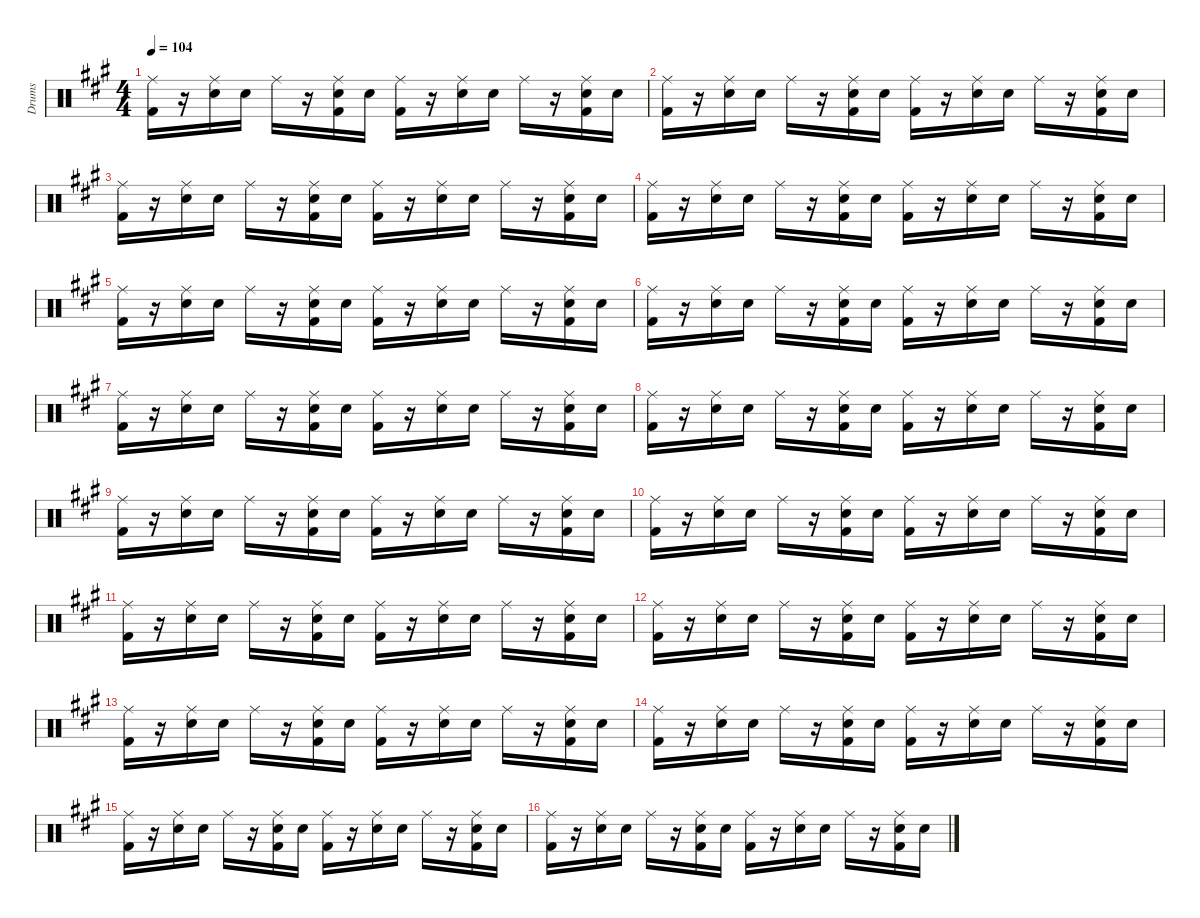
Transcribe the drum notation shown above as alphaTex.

\hideDynamics
\bracketExtendMode nobrackets
\otherSystemsTrackNameOrientation horizontal
\track ("Drumkit" "Drums") {instrument percussion}
\staff {score}
\articulation defaults
\ts (4 4)
\tempo 104
\clef neutral
\ks a
("Ride (middle)"{acc forcenatural} "Kick (hit) 2"{acc forcenatural}).16{dy f beam Down} r.16{beam Down} ("Ride (middle)"{acc forcenatural} "Snare (hit) 2"{acc forcenatural}).16{beam Down} "Snare (hit) 2"{acc forcenatural}.16{beam Down} "Ride (middle)"{acc forcenatural}.16{beam Down} r.16{beam Down} ("Ride (middle)"{acc forcenatural} "Snare (hit) 2"{acc forcenatural} "Kick (hit) 2"{acc forcenatural}).16{beam Down} "Snare (hit) 2"{acc forcenatural}.16{beam Down} ("Ride (middle)"{acc forcenatural} "Kick (hit) 2"{acc forcenatural}).16{beam Down} r.16{beam Down} ("Ride (middle)"{acc forcenatural} "Snare (hit) 2"{acc forcenatural}).16{beam Down} "Snare (hit) 2"{acc forcenatural}.16{beam Down} "Ride (middle)"{acc forcenatural}.16{beam Down} r.16{beam Down} ("Ride (middle)"{acc forcenatural} "Snare (hit) 2"{acc forcenatural} "Kick (hit) 2"{acc forcenatural}).16{beam Down} "Snare (hit) 2"{acc forcenatural}.16{beam Down} |
("Ride (middle)"{acc forcenatural} "Kick (hit) 2"{acc forcenatural}).16{beam Down} r.16{beam Down} ("Ride (middle)"{acc forcenatural} "Snare (hit) 2"{acc forcenatural}).16{beam Down} "Snare (hit) 2"{acc forcenatural}.16{beam Down} "Ride (middle)"{acc forcenatural}.16{beam Down} r.16{beam Down} ("Ride (middle)"{acc forcenatural} "Snare (hit) 2"{acc forcenatural} "Kick (hit) 2"{acc forcenatural}).16{beam Down} "Snare (hit) 2"{acc forcenatural}.16{beam Down} ("Ride (middle)"{acc forcenatural} "Kick (hit) 2"{acc forcenatural}).16{beam Down} r.16{beam Down} ("Ride (middle)"{acc forcenatural} "Snare (hit) 2"{acc forcenatural}).16{beam Down} "Snare (hit) 2"{acc forcenatural}.16{beam Down} "Ride (middle)"{acc forcenatural}.16{beam Down} r.16{beam Down} ("Ride (middle)"{acc forcenatural} "Snare (hit) 2"{acc forcenatural} "Kick (hit) 2"{acc forcenatural}).16{beam Down} "Snare (hit) 2"{acc forcenatural}.16{beam Down} |
("Ride (middle)"{acc forcenatural} "Kick (hit) 2"{acc forcenatural}).16{beam Down} r.16{beam Down} ("Ride (middle)"{acc forcenatural} "Snare (hit) 2"{acc forcenatural}).16{beam Down} "Snare (hit) 2"{acc forcenatural}.16{beam Down} "Ride (middle)"{acc forcenatural}.16{beam Down} r.16{beam Down} ("Ride (middle)"{acc forcenatural} "Snare (hit) 2"{acc forcenatural} "Kick (hit) 2"{acc forcenatural}).16{beam Down} "Snare (hit) 2"{acc forcenatural}.16{beam Down} ("Ride (middle)"{acc forcenatural} "Kick (hit) 2"{acc forcenatural}).16{beam Down} r.16{beam Down} ("Ride (middle)"{acc forcenatural} "Snare (hit) 2"{acc forcenatural}).16{beam Down} "Snare (hit) 2"{acc forcenatural}.16{beam Down} "Ride (middle)"{acc forcenatural}.16{beam Down} r.16{beam Down} ("Ride (middle)"{acc forcenatural} "Snare (hit) 2"{acc forcenatural} "Kick (hit) 2"{acc forcenatural}).16{beam Down} "Snare (hit) 2"{acc forcenatural}.16{beam Down} |
("Ride (middle)"{acc forcenatural} "Kick (hit) 2"{acc forcenatural}).16{beam Down} r.16{beam Down} ("Ride (middle)"{acc forcenatural} "Snare (hit) 2"{acc forcenatural}).16{beam Down} "Snare (hit) 2"{acc forcenatural}.16{beam Down} "Ride (middle)"{acc forcenatural}.16{beam Down} r.16{beam Down} ("Ride (middle)"{acc forcenatural} "Snare (hit) 2"{acc forcenatural} "Kick (hit) 2"{acc forcenatural}).16{beam Down} "Snare (hit) 2"{acc forcenatural}.16{beam Down} ("Ride (middle)"{acc forcenatural} "Kick (hit) 2"{acc forcenatural}).16{beam Down} r.16{beam Down} ("Ride (middle)"{acc forcenatural} "Snare (hit) 2"{acc forcenatural}).16{beam Down} "Snare (hit) 2"{acc forcenatural}.16{beam Down} "Ride (middle)"{acc forcenatural}.16{beam Down} r.16{beam Down} ("Ride (middle)"{acc forcenatural} "Snare (hit) 2"{acc forcenatural} "Kick (hit) 2"{acc forcenatural}).16{beam Down} "Snare (hit) 2"{acc forcenatural}.16{beam Down} |
("Ride (middle)"{acc forcenatural} "Kick (hit) 2"{acc forcenatural}).16{beam Down} r.16{beam Down} ("Ride (middle)"{acc forcenatural} "Snare (hit) 2"{acc forcenatural}).16{beam Down} "Snare (hit) 2"{acc forcenatural}.16{beam Down} "Ride (middle)"{acc forcenatural}.16{beam Down} r.16{beam Down} ("Ride (middle)"{acc forcenatural} "Snare (hit) 2"{acc forcenatural} "Kick (hit) 2"{acc forcenatural}).16{beam Down} "Snare (hit) 2"{acc forcenatural}.16{beam Down} ("Ride (middle)"{acc forcenatural} "Kick (hit) 2"{acc forcenatural}).16{beam Down} r.16{beam Down} ("Ride (middle)"{acc forcenatural} "Snare (hit) 2"{acc forcenatural}).16{beam Down} "Snare (hit) 2"{acc forcenatural}.16{beam Down} "Ride (middle)"{acc forcenatural}.16{beam Down} r.16{beam Down} ("Ride (middle)"{acc forcenatural} "Snare (hit) 2"{acc forcenatural} "Kick (hit) 2"{acc forcenatural}).16{beam Down} "Snare (hit) 2"{acc forcenatural}.16{beam Down} |
("Ride (middle)"{acc forcenatural} "Kick (hit) 2"{acc forcenatural}).16{beam Down} r.16{beam Down} ("Ride (middle)"{acc forcenatural} "Snare (hit) 2"{acc forcenatural}).16{beam Down} "Snare (hit) 2"{acc forcenatural}.16{beam Down} "Ride (middle)"{acc forcenatural}.16{beam Down} r.16{beam Down} ("Ride (middle)"{acc forcenatural} "Snare (hit) 2"{acc forcenatural} "Kick (hit) 2"{acc forcenatural}).16{beam Down} "Snare (hit) 2"{acc forcenatural}.16{beam Down} ("Ride (middle)"{acc forcenatural} "Kick (hit) 2"{acc forcenatural}).16{beam Down} r.16{beam Down} ("Ride (middle)"{acc forcenatural} "Snare (hit) 2"{acc forcenatural}).16{beam Down} "Snare (hit) 2"{acc forcenatural}.16{beam Down} "Ride (middle)"{acc forcenatural}.16{beam Down} r.16{beam Down} ("Ride (middle)"{acc forcenatural} "Snare (hit) 2"{acc forcenatural} "Kick (hit) 2"{acc forcenatural}).16{beam Down} "Snare (hit) 2"{acc forcenatural}.16{beam Down} |
("Ride (middle)"{acc forcenatural} "Kick (hit) 2"{acc forcenatural}).16{beam Down} r.16{beam Down} ("Ride (middle)"{acc forcenatural} "Snare (hit) 2"{acc forcenatural}).16{beam Down} "Snare (hit) 2"{acc forcenatural}.16{beam Down} "Ride (middle)"{acc forcenatural}.16{beam Down} r.16{beam Down} ("Ride (middle)"{acc forcenatural} "Snare (hit) 2"{acc forcenatural} "Kick (hit) 2"{acc forcenatural}).16{beam Down} "Snare (hit) 2"{acc forcenatural}.16{beam Down} ("Ride (middle)"{acc forcenatural} "Kick (hit) 2"{acc forcenatural}).16{beam Down} r.16{beam Down} ("Ride (middle)"{acc forcenatural} "Snare (hit) 2"{acc forcenatural}).16{beam Down} "Snare (hit) 2"{acc forcenatural}.16{beam Down} "Ride (middle)"{acc forcenatural}.16{beam Down} r.16{beam Down} ("Ride (middle)"{acc forcenatural} "Snare (hit) 2"{acc forcenatural} "Kick (hit) 2"{acc forcenatural}).16{beam Down} "Snare (hit) 2"{acc forcenatural}.16{beam Down} |
("Ride (middle)"{acc forcenatural} "Kick (hit) 2"{acc forcenatural}).16{beam Down} r.16{beam Down} ("Ride (middle)"{acc forcenatural} "Snare (hit) 2"{acc forcenatural}).16{beam Down} "Snare (hit) 2"{acc forcenatural}.16{beam Down} "Ride (middle)"{acc forcenatural}.16{beam Down} r.16{beam Down} ("Ride (middle)"{acc forcenatural} "Snare (hit) 2"{acc forcenatural} "Kick (hit) 2"{acc forcenatural}).16{beam Down} "Snare (hit) 2"{acc forcenatural}.16{beam Down} ("Ride (middle)"{acc forcenatural} "Kick (hit) 2"{acc forcenatural}).16{beam Down} r.16{beam Down} ("Ride (middle)"{acc forcenatural} "Snare (hit) 2"{acc forcenatural}).16{beam Down} "Snare (hit) 2"{acc forcenatural}.16{beam Down} "Ride (middle)"{acc forcenatural}.16{beam Down} r.16{beam Down} ("Ride (middle)"{acc forcenatural} "Snare (hit) 2"{acc forcenatural} "Kick (hit) 2"{acc forcenatural}).16{beam Down} "Snare (hit) 2"{acc forcenatural}.16{beam Down} |
("Ride (middle)"{acc forcenatural} "Kick (hit) 2"{acc forcenatural}).16{beam Down} r.16{beam Down} ("Ride (middle)"{acc forcenatural} "Snare (hit) 2"{acc forcenatural}).16{beam Down} "Snare (hit) 2"{acc forcenatural}.16{beam Down} "Ride (middle)"{acc forcenatural}.16{beam Down} r.16{beam Down} ("Ride (middle)"{acc forcenatural} "Snare (hit) 2"{acc forcenatural} "Kick (hit) 2"{acc forcenatural}).16{beam Down} "Snare (hit) 2"{acc forcenatural}.16{beam Down} ("Ride (middle)"{acc forcenatural} "Kick (hit) 2"{acc forcenatural}).16{beam Down} r.16{beam Down} ("Ride (middle)"{acc forcenatural} "Snare (hit) 2"{acc forcenatural}).16{beam Down} "Snare (hit) 2"{acc forcenatural}.16{beam Down} "Ride (middle)"{acc forcenatural}.16{beam Down} r.16{beam Down} ("Ride (middle)"{acc forcenatural} "Snare (hit) 2"{acc forcenatural} "Kick (hit) 2"{acc forcenatural}).16{beam Down} "Snare (hit) 2"{acc forcenatural}.16{beam Down} |
("Ride (middle)"{acc forcenatural} "Kick (hit) 2"{acc forcenatural}).16{beam Down} r.16{beam Down} ("Ride (middle)"{acc forcenatural} "Snare (hit) 2"{acc forcenatural}).16{beam Down} "Snare (hit) 2"{acc forcenatural}.16{beam Down} "Ride (middle)"{acc forcenatural}.16{beam Down} r.16{beam Down} ("Ride (middle)"{acc forcenatural} "Snare (hit) 2"{acc forcenatural} "Kick (hit) 2"{acc forcenatural}).16{beam Down} "Snare (hit) 2"{acc forcenatural}.16{beam Down} ("Ride (middle)"{acc forcenatural} "Kick (hit) 2"{acc forcenatural}).16{beam Down} r.16{beam Down} ("Ride (middle)"{acc forcenatural} "Snare (hit) 2"{acc forcenatural}).16{beam Down} "Snare (hit) 2"{acc forcenatural}.16{beam Down} "Ride (middle)"{acc forcenatural}.16{beam Down} r.16{beam Down} ("Ride (middle)"{acc forcenatural} "Snare (hit) 2"{acc forcenatural} "Kick (hit) 2"{acc forcenatural}).16{beam Down} "Snare (hit) 2"{acc forcenatural}.16{beam Down} |
("Ride (middle)"{acc forcenatural} "Kick (hit) 2"{acc forcenatural}).16{beam Down} r.16{beam Down} ("Ride (middle)"{acc forcenatural} "Snare (hit) 2"{acc forcenatural}).16{beam Down} "Snare (hit) 2"{acc forcenatural}.16{beam Down} "Ride (middle)"{acc forcenatural}.16{beam Down} r.16{beam Down} ("Ride (middle)"{acc forcenatural} "Snare (hit) 2"{acc forcenatural} "Kick (hit) 2"{acc forcenatural}).16{beam Down} "Snare (hit) 2"{acc forcenatural}.16{beam Down} ("Ride (middle)"{acc forcenatural} "Kick (hit) 2"{acc forcenatural}).16{beam Down} r.16{beam Down} ("Ride (middle)"{acc forcenatural} "Snare (hit) 2"{acc forcenatural}).16{beam Down} "Snare (hit) 2"{acc forcenatural}.16{beam Down} "Ride (middle)"{acc forcenatural}.16{beam Down} r.16{beam Down} ("Ride (middle)"{acc forcenatural} "Snare (hit) 2"{acc forcenatural} "Kick (hit) 2"{acc forcenatural}).16{beam Down} "Snare (hit) 2"{acc forcenatural}.16{beam Down} |
("Ride (middle)"{acc forcenatural} "Kick (hit) 2"{acc forcenatural}).16{beam Down} r.16{beam Down} ("Ride (middle)"{acc forcenatural} "Snare (hit) 2"{acc forcenatural}).16{beam Down} "Snare (hit) 2"{acc forcenatural}.16{beam Down} "Ride (middle)"{acc forcenatural}.16{beam Down} r.16{beam Down} ("Ride (middle)"{acc forcenatural} "Snare (hit) 2"{acc forcenatural} "Kick (hit) 2"{acc forcenatural}).16{beam Down} "Snare (hit) 2"{acc forcenatural}.16{beam Down} ("Ride (middle)"{acc forcenatural} "Kick (hit) 2"{acc forcenatural}).16{beam Down} r.16{beam Down} ("Ride (middle)"{acc forcenatural} "Snare (hit) 2"{acc forcenatural}).16{beam Down} "Snare (hit) 2"{acc forcenatural}.16{beam Down} "Ride (middle)"{acc forcenatural}.16{beam Down} r.16{beam Down} ("Ride (middle)"{acc forcenatural} "Snare (hit) 2"{acc forcenatural} "Kick (hit) 2"{acc forcenatural}).16{beam Down} "Snare (hit) 2"{acc forcenatural}.16{beam Down} |
("Ride (middle)"{acc forcenatural} "Kick (hit) 2"{acc forcenatural}).16{beam Down} r.16{beam Down} ("Ride (middle)"{acc forcenatural} "Snare (hit) 2"{acc forcenatural}).16{beam Down} "Snare (hit) 2"{acc forcenatural}.16{beam Down} "Ride (middle)"{acc forcenatural}.16{beam Down} r.16{beam Down} ("Ride (middle)"{acc forcenatural} "Snare (hit) 2"{acc forcenatural} "Kick (hit) 2"{acc forcenatural}).16{beam Down} "Snare (hit) 2"{acc forcenatural}.16{beam Down} ("Ride (middle)"{acc forcenatural} "Kick (hit) 2"{acc forcenatural}).16{beam Down} r.16{beam Down} ("Ride (middle)"{acc forcenatural} "Snare (hit) 2"{acc forcenatural}).16{beam Down} "Snare (hit) 2"{acc forcenatural}.16{beam Down} "Ride (middle)"{acc forcenatural}.16{beam Down} r.16{beam Down} ("Ride (middle)"{acc forcenatural} "Snare (hit) 2"{acc forcenatural} "Kick (hit) 2"{acc forcenatural}).16{beam Down} "Snare (hit) 2"{acc forcenatural}.16{beam Down} |
("Ride (middle)"{acc forcenatural} "Kick (hit) 2"{acc forcenatural}).16{beam Down} r.16{beam Down} ("Ride (middle)"{acc forcenatural} "Snare (hit) 2"{acc forcenatural}).16{beam Down} "Snare (hit) 2"{acc forcenatural}.16{beam Down} "Ride (middle)"{acc forcenatural}.16{beam Down} r.16{beam Down} ("Ride (middle)"{acc forcenatural} "Snare (hit) 2"{acc forcenatural} "Kick (hit) 2"{acc forcenatural}).16{beam Down} "Snare (hit) 2"{acc forcenatural}.16{beam Down} ("Ride (middle)"{acc forcenatural} "Kick (hit) 2"{acc forcenatural}).16{beam Down} r.16{beam Down} ("Ride (middle)"{acc forcenatural} "Snare (hit) 2"{acc forcenatural}).16{beam Down} "Snare (hit) 2"{acc forcenatural}.16{beam Down} "Ride (middle)"{acc forcenatural}.16{beam Down} r.16{beam Down} ("Ride (middle)"{acc forcenatural} "Snare (hit) 2"{acc forcenatural} "Kick (hit) 2"{acc forcenatural}).16{beam Down} "Snare (hit) 2"{acc forcenatural}.16{beam Down} |
("Ride (middle)"{acc forcenatural} "Kick (hit) 2"{acc forcenatural}).16{beam Down} r.16{beam Down} ("Ride (middle)"{acc forcenatural} "Snare (hit) 2"{acc forcenatural}).16{beam Down} "Snare (hit) 2"{acc forcenatural}.16{beam Down} "Ride (middle)"{acc forcenatural}.16{beam Down} r.16{beam Down} ("Ride (middle)"{acc forcenatural} "Snare (hit) 2"{acc forcenatural} "Kick (hit) 2"{acc forcenatural}).16{beam Down} "Snare (hit) 2"{acc forcenatural}.16{beam Down} ("Ride (middle)"{acc forcenatural} "Kick (hit) 2"{acc forcenatural}).16{beam Down} r.16{beam Down} ("Ride (middle)"{acc forcenatural} "Snare (hit) 2"{acc forcenatural}).16{beam Down} "Snare (hit) 2"{acc forcenatural}.16{beam Down} "Ride (middle)"{acc forcenatural}.16{beam Down} r.16{beam Down} ("Ride (middle)"{acc forcenatural} "Snare (hit) 2"{acc forcenatural} "Kick (hit) 2"{acc forcenatural}).16{beam Down} "Snare (hit) 2"{acc forcenatural}.16{beam Down} |
("Ride (middle)"{acc forcenatural} "Kick (hit) 2"{acc forcenatural}).16{beam Down} r.16{beam Down} ("Ride (middle)"{acc forcenatural} "Snare (hit) 2"{acc forcenatural}).16{beam Down} "Snare (hit) 2"{acc forcenatural}.16{beam Down} "Ride (middle)"{acc forcenatural}.16{beam Down} r.16{beam Down} ("Ride (middle)"{acc forcenatural} "Snare (hit) 2"{acc forcenatural} "Kick (hit) 2"{acc forcenatural}).16{beam Down} "Snare (hit) 2"{acc forcenatural}.16{beam Down} ("Ride (middle)"{acc forcenatural} "Kick (hit) 2"{acc forcenatural}).16{beam Down} r.16{beam Down} ("Ride (middle)"{acc forcenatural} "Snare (hit) 2"{acc forcenatural}).16{beam Down} "Snare (hit) 2"{acc forcenatural}.16{beam Down} "Ride (middle)"{acc forcenatural}.16{beam Down} r.16{beam Down} ("Ride (middle)"{acc forcenatural} "Snare (hit) 2"{acc forcenatural} "Kick (hit) 2"{acc forcenatural}).16{beam Down} "Snare (hit) 2"{acc forcenatural}.16{beam Down}
